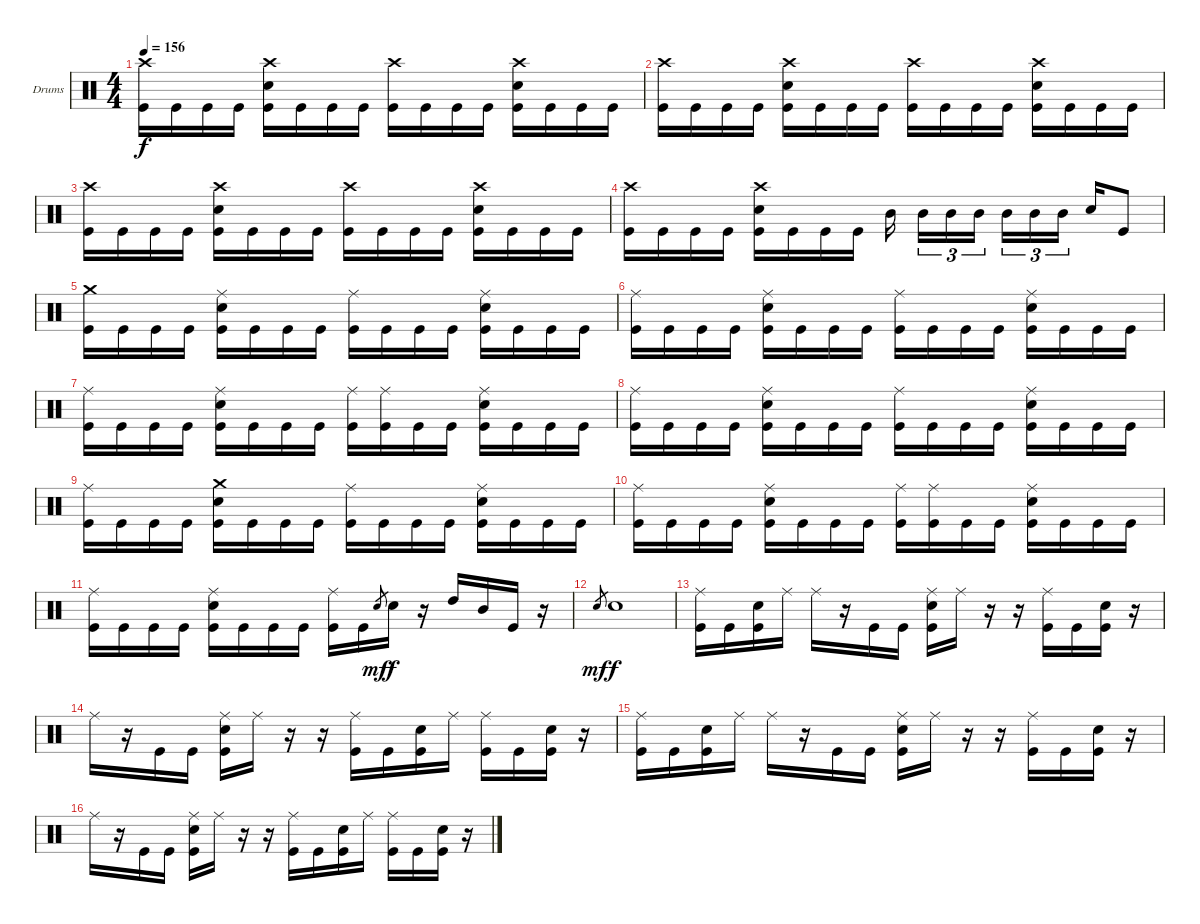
\bracketExtendMode groupsimilarinstruments
\firstSystemTrackNameOrientation horizontal
\otherSystemsTrackNameOrientation horizontal
\track ("Drumkit" "Drums") {instrument percussion}
\staff {score}
\articulation defaults
\ts (4 4)
\tempo 156
\clef neutral
\ks c
("Crash high (hit)" "Kick (hit)").16{dy f} "Kick (hit)".16 "Kick (hit)".16 "Kick (hit)".16 ("Crash high (hit)" "Snare (hit) 2" "Kick (hit)").16 "Kick (hit)".16 "Kick (hit)".16 "Kick (hit)".16 ("Crash high (hit)" "Kick (hit)").16 "Kick (hit)".16 "Kick (hit)".16 "Kick (hit)".16 ("Crash high (hit)" "Snare (hit) 2" "Kick (hit)").16 "Kick (hit)".16 "Kick (hit)".16 "Kick (hit)".16 |
("Crash high (hit)" "Kick (hit)").16 "Kick (hit)".16 "Kick (hit)".16 "Kick (hit)".16 ("Crash high (hit)" "Snare (hit) 2" "Kick (hit)").16 "Kick (hit)".16 "Kick (hit)".16 "Kick (hit)".16 ("Crash high (hit)" "Kick (hit)").16 "Kick (hit)".16 "Kick (hit)".16 "Kick (hit)".16 ("Crash high (hit)" "Snare (hit) 2" "Kick (hit)").16 "Kick (hit)".16 "Kick (hit)".16 "Kick (hit)".16 |
("Crash high (hit)" "Kick (hit)").16 "Kick (hit)".16 "Kick (hit)".16 "Kick (hit)".16 ("Crash high (hit)" "Snare (hit) 2" "Kick (hit)").16 "Kick (hit)".16 "Kick (hit)".16 "Kick (hit)".16 ("Crash high (hit)" "Kick (hit)").16 "Kick (hit)".16 "Kick (hit)".16 "Kick (hit)".16 ("Crash high (hit)" "Snare (hit) 2" "Kick (hit)").16 "Kick (hit)".16 "Kick (hit)".16 "Kick (hit)".16 |
("Crash high (hit)" "Kick (hit)").16 "Kick (hit)".16 "Kick (hit)".16 "Kick (hit)".16 ("Crash high (hit)" "Snare (hit) 2" "Kick (hit)").16 "Kick (hit)".16 "Kick (hit)".16 "Kick (hit)".16 "Mid Tom (hit)".16 "Mid Tom (hit)".16{tu (3 2)} "Mid Tom (hit)".16{tu (3 2)} "Mid Tom (hit)".16{tu (3 2)} "Mid Tom (hit)".16{tu (3 2)} "Mid Tom (hit)".16{tu (3 2)} "Mid Tom (hit)".16{tu (3 2)} "Snare (hit) 2".16 "Kick (hit)".8 |
("Crash medium (hit)" "Kick (hit)").16 "Kick (hit)".16 "Kick (hit)".16 "Kick (hit)".16 ("Ride (middle)" "Snare (hit) 2" "Kick (hit)").16 "Kick (hit)".16 "Kick (hit)".16 "Kick (hit)".16 ("Ride (middle)" "Kick (hit)").16 "Kick (hit)".16 "Kick (hit)".16 "Kick (hit)".16 ("Ride (middle)" "Snare (hit) 2" "Kick (hit)").16 "Kick (hit)".16 "Kick (hit)".16 "Kick (hit)".16 |
("Ride (middle)" "Kick (hit)").16 "Kick (hit)".16 "Kick (hit)".16 "Kick (hit)".16 ("Ride (middle)" "Snare (hit) 2" "Kick (hit)").16 "Kick (hit)".16 "Kick (hit)".16 "Kick (hit)".16 ("Ride (middle)" "Kick (hit)").16 "Kick (hit)".16 "Kick (hit)".16 "Kick (hit)".16 ("Ride (middle)" "Snare (hit) 2" "Kick (hit)").16 "Kick (hit)".16 "Kick (hit)".16 "Kick (hit)".16 |
("Ride (middle)" "Kick (hit)").16 "Kick (hit)".16 "Kick (hit)".16 "Kick (hit)".16 ("Ride (middle)" "Snare (hit) 2" "Kick (hit)").16 "Kick (hit)".16 "Kick (hit)".16 "Kick (hit)".16 ("Ride (middle)" "Kick (hit)").16 ("Ride (middle)" "Kick (hit)").16 "Kick (hit)".16 "Kick (hit)".16 ("Ride (middle)" "Snare (hit) 2" "Kick (hit)").16 "Kick (hit)".16 "Kick (hit)".16 "Kick (hit)".16 |
("Ride (middle)" "Kick (hit)").16 "Kick (hit)".16 "Kick (hit)".16 "Kick (hit)".16 ("Ride (middle)" "Snare (hit) 2" "Kick (hit)").16 "Kick (hit)".16 "Kick (hit)".16 "Kick (hit)".16 ("Ride (middle)" "Kick (hit)").16 "Kick (hit)".16 "Kick (hit)".16 "Kick (hit)".16 ("Ride (middle)" "Snare (hit) 2" "Kick (hit)").16 "Kick (hit)".16 "Kick (hit)".16 "Kick (hit)".16 |
("Ride (middle)" "Kick (hit)").16 "Kick (hit)".16 "Kick (hit)".16 "Kick (hit)".16 ("Crash medium (hit)" "Snare (hit) 2" "Kick (hit)").16 "Kick (hit)".16 "Kick (hit)".16 "Kick (hit)".16 ("Ride (middle)" "Kick (hit)").16 "Kick (hit)".16 "Kick (hit)".16 "Kick (hit)".16 ("Ride (middle)" "Snare (hit) 2" "Kick (hit)").16 "Kick (hit)".16 "Kick (hit)".16 "Kick (hit)".16 |
("Ride (middle)" "Kick (hit)").16 "Kick (hit)".16 "Kick (hit)".16 "Kick (hit)".16 ("Ride (middle)" "Snare (hit) 2" "Kick (hit)").16 "Kick (hit)".16 "Kick (hit)".16 "Kick (hit)".16 ("Ride (middle)" "Kick (hit)").16 ("Ride (middle)" "Kick (hit)").16 "Kick (hit)".16 "Kick (hit)".16 ("Ride (middle)" "Snare (hit) 2" "Kick (hit)").16 "Kick (hit)".16 "Kick (hit)".16 "Kick (hit)".16 |
("Ride (middle)" "Kick (hit)").16 "Kick (hit)".16 "Kick (hit)".16 "Kick (hit)".16 ("Ride (middle)" "Snare (hit) 2" "Kick (hit)").16 "Kick (hit)".16 "Kick (hit)".16 "Kick (hit)".16 ("Ride (middle)" "Kick (hit)").16 "Kick (hit)".16 "Snare (hit) 2".8{gr dy mf} "Snare (hit) 2".16{dy f} r.16 "High Tom (hit)".16 "Mid Tom (hit)".16 "Kick (hit)".16 r.16 |
"Snare (hit) 2".8{gr dy mf} "Snare (hit) 2".1{dy f} |
("Ride (middle)" "Kick (hit)").16 "Kick (hit)".16 ("Snare (hit) 2" "Kick (hit)").16 "Ride (middle)".16 "Ride (middle)".16 r.16 "Kick (hit)".16 "Kick (hit)".16 ("Ride (middle)" "Snare (hit) 2" "Kick (hit)").16 "Ride (middle)".16 r.16 r.16 ("Ride (middle)" "Kick (hit)").16 "Kick (hit)".16 ("Snare (hit) 2" "Kick (hit)").16 r.16 |
"Ride (middle)".16 r.16 "Kick (hit)".16 "Kick (hit)".16 ("Ride (middle)" "Snare (hit) 2" "Kick (hit)").16 "Ride (middle)".16 r.16 r.16 ("Ride (middle)" "Kick (hit)").16 "Kick (hit)".16 ("Snare (hit) 2" "Kick (hit)").16 "Ride (middle)".16 ("Ride (middle)" "Kick (hit)").16 "Kick (hit)".16 ("Snare (hit) 2" "Kick (hit)").16 r.16 |
("Ride (middle)" "Kick (hit)").16 "Kick (hit)".16 ("Snare (hit) 2" "Kick (hit)").16 "Ride (middle)".16 "Ride (middle)".16 r.16 "Kick (hit)".16 "Kick (hit)".16 ("Ride (middle)" "Snare (hit) 2" "Kick (hit)").16 "Ride (middle)".16 r.16 r.16 ("Ride (middle)" "Kick (hit)").16 "Kick (hit)".16 ("Snare (hit) 2" "Kick (hit)").16 r.16 |
"Ride (middle)".16 r.16 "Kick (hit)".16 "Kick (hit)".16 ("Ride (middle)" "Snare (hit) 2" "Kick (hit)").16 "Ride (middle)".16 r.16 r.16 ("Ride (middle)" "Kick (hit)").16 "Kick (hit)".16 ("Snare (hit) 2" "Kick (hit)").16 "Ride (middle)".16 ("Ride (middle)" "Kick (hit)").16 "Kick (hit)".16 ("Snare (hit) 2" "Kick (hit)").16 r.16
